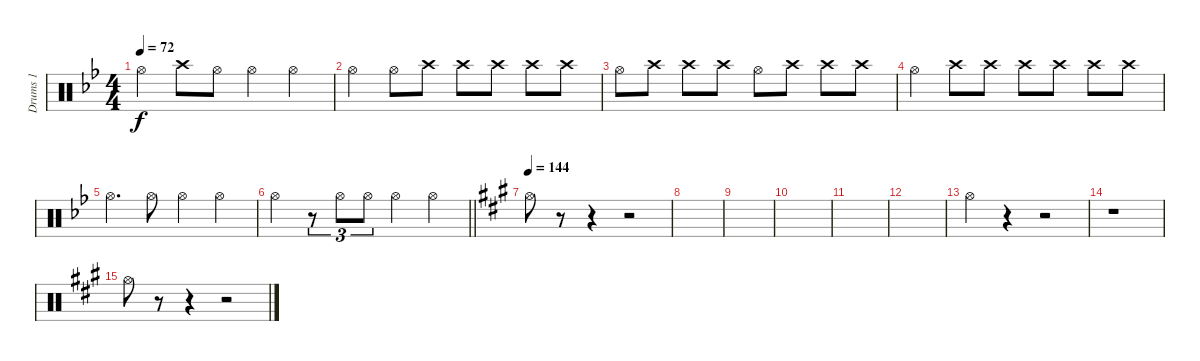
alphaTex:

\track ("Drums 1" "Drums 1") {instrument percussion}
\staff {score}
\articulation defaults
\ts (4 4)
\tempo 72
\clef neutral
\ks bb "Hi-Hat (open)".4{dy f} "Crash high (hit)".8 "Hi-Hat (open)".8 "Hi-Hat (open)".4 "Hi-Hat (open)".4
|
"Hi-Hat (open)".4 "Hi-Hat (open)".8 "Crash high (hit)".8 "Crash high (hit)".8 "Crash high (hit)".8 "Crash high (hit)".8 "Crash high (hit)".8 |
"Hi-Hat (open)".8 "Crash high (hit)".8 "Crash high (hit)".8 "Crash high (hit)".8 "Hi-Hat (open)".8 "Crash high (hit)".8 "Crash high (hit)".8 "Crash high (hit)".8 |
"Hi-Hat (open)".4 "Crash high (hit)".8 "Crash high (hit)".8 "Crash high (hit)".8 "Crash high (hit)".8 "Crash high (hit)".8 "Crash high (hit)".8 |
"Hi-Hat (open)".4{d} "Hi-Hat (open)".8 "Hi-Hat (open)".4 "Hi-Hat (open)".4 |
\barLineRight lightlight "Hi-Hat (open)".4
r.8{tu (3 2)} "Hi-Hat (open)".8{tu (3 2)} "Hi-Hat (open)".8{tu (3 2)} "Hi-Hat (open)".4 "Hi-Hat (open)".4 |
\tempo 144
\ks a "Hi-Hat (open)".8
r.8 r.4 r.2 |
|
|
|
|
|
"Hi-Hat (open)".4 r.4 r.2 |
r.1 |
"Hi-Hat (open)".8 r.8 r.4 r.2
